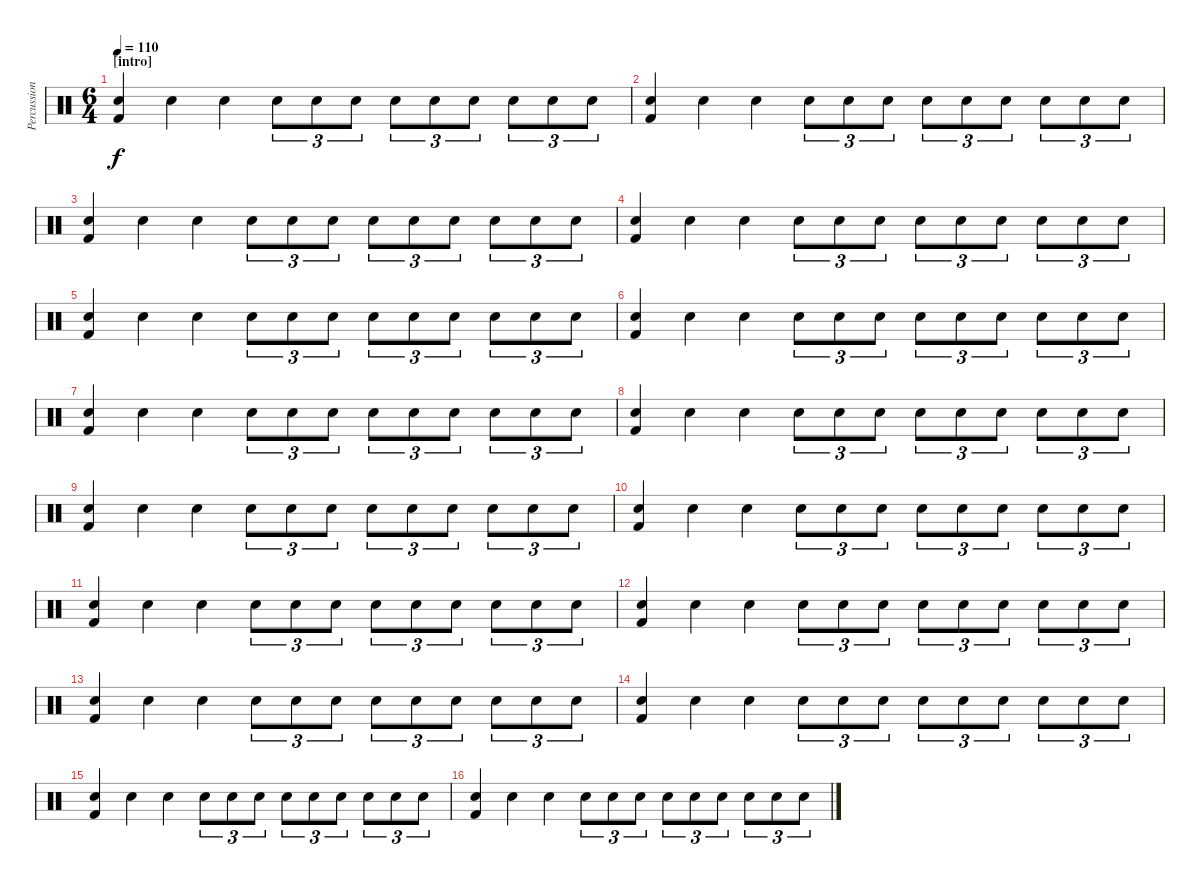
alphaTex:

\track ("Percussion" "Percussion") {instrument percussion}
\staff {score}
\articulation defaults
\ts (6 4)
\section ("" "[intro]")
\tempo 110
\clef neutral
\ks c
("Electric Snare (hit)" "Kick (hit) 2").4{dy f} "Electric Snare (hit)".4 "Electric Snare (hit)".4 "Electric Snare (hit)".8{tu (3 2)} "Electric Snare (hit)".8{tu (3 2)} "Electric Snare (hit)".8{tu (3 2)} "Electric Snare (hit)".8{tu (3 2)} "Electric Snare (hit)".8{tu (3 2)} "Electric Snare (hit)".8{tu (3 2)} "Electric Snare (hit)".8{tu (3 2)} "Electric Snare (hit)".8{tu (3 2)} "Electric Snare (hit)".8{tu (3 2)} |
("Electric Snare (hit)" "Kick (hit) 2").4 "Electric Snare (hit)".4 "Electric Snare (hit)".4 "Electric Snare (hit)".8{tu (3 2)} "Electric Snare (hit)".8{tu (3 2)} "Electric Snare (hit)".8{tu (3 2)} "Electric Snare (hit)".8{tu (3 2)} "Electric Snare (hit)".8{tu (3 2)} "Electric Snare (hit)".8{tu (3 2)} "Electric Snare (hit)".8{tu (3 2)} "Electric Snare (hit)".8{tu (3 2)} "Electric Snare (hit)".8{tu (3 2)} |
("Electric Snare (hit)" "Kick (hit) 2").4 "Electric Snare (hit)".4 "Electric Snare (hit)".4 "Electric Snare (hit)".8{tu (3 2)} "Electric Snare (hit)".8{tu (3 2)} "Electric Snare (hit)".8{tu (3 2)} "Electric Snare (hit)".8{tu (3 2)} "Electric Snare (hit)".8{tu (3 2)} "Electric Snare (hit)".8{tu (3 2)} "Electric Snare (hit)".8{tu (3 2)} "Electric Snare (hit)".8{tu (3 2)} "Electric Snare (hit)".8{tu (3 2)} |
("Electric Snare (hit)" "Kick (hit) 2").4 "Electric Snare (hit)".4 "Electric Snare (hit)".4 "Electric Snare (hit)".8{tu (3 2)} "Electric Snare (hit)".8{tu (3 2)} "Electric Snare (hit)".8{tu (3 2)} "Electric Snare (hit)".8{tu (3 2)} "Electric Snare (hit)".8{tu (3 2)} "Electric Snare (hit)".8{tu (3 2)} "Electric Snare (hit)".8{tu (3 2)} "Electric Snare (hit)".8{tu (3 2)} "Electric Snare (hit)".8{tu (3 2)} |
("Electric Snare (hit)" "Kick (hit) 2").4 "Electric Snare (hit)".4 "Electric Snare (hit)".4 "Electric Snare (hit)".8{tu (3 2)} "Electric Snare (hit)".8{tu (3 2)} "Electric Snare (hit)".8{tu (3 2)} "Electric Snare (hit)".8{tu (3 2)} "Electric Snare (hit)".8{tu (3 2)} "Electric Snare (hit)".8{tu (3 2)} "Electric Snare (hit)".8{tu (3 2)} "Electric Snare (hit)".8{tu (3 2)} "Electric Snare (hit)".8{tu (3 2)} |
("Electric Snare (hit)" "Kick (hit) 2").4 "Electric Snare (hit)".4 "Electric Snare (hit)".4 "Electric Snare (hit)".8{tu (3 2)} "Electric Snare (hit)".8{tu (3 2)} "Electric Snare (hit)".8{tu (3 2)} "Electric Snare (hit)".8{tu (3 2)} "Electric Snare (hit)".8{tu (3 2)} "Electric Snare (hit)".8{tu (3 2)} "Electric Snare (hit)".8{tu (3 2)} "Electric Snare (hit)".8{tu (3 2)} "Electric Snare (hit)".8{tu (3 2)} |
("Electric Snare (hit)" "Kick (hit) 2").4 "Electric Snare (hit)".4 "Electric Snare (hit)".4 "Electric Snare (hit)".8{tu (3 2)} "Electric Snare (hit)".8{tu (3 2)} "Electric Snare (hit)".8{tu (3 2)} "Electric Snare (hit)".8{tu (3 2)} "Electric Snare (hit)".8{tu (3 2)} "Electric Snare (hit)".8{tu (3 2)} "Electric Snare (hit)".8{tu (3 2)} "Electric Snare (hit)".8{tu (3 2)} "Electric Snare (hit)".8{tu (3 2)} |
("Electric Snare (hit)" "Kick (hit) 2").4 "Electric Snare (hit)".4 "Electric Snare (hit)".4 "Electric Snare (hit)".8{tu (3 2)} "Electric Snare (hit)".8{tu (3 2)} "Electric Snare (hit)".8{tu (3 2)} "Electric Snare (hit)".8{tu (3 2)} "Electric Snare (hit)".8{tu (3 2)} "Electric Snare (hit)".8{tu (3 2)} "Electric Snare (hit)".8{tu (3 2)} "Electric Snare (hit)".8{tu (3 2)} "Electric Snare (hit)".8{tu (3 2)} |
("Electric Snare (hit)" "Kick (hit) 2").4 "Electric Snare (hit)".4 "Electric Snare (hit)".4 "Electric Snare (hit)".8{tu (3 2)} "Electric Snare (hit)".8{tu (3 2)} "Electric Snare (hit)".8{tu (3 2)} "Electric Snare (hit)".8{tu (3 2)} "Electric Snare (hit)".8{tu (3 2)} "Electric Snare (hit)".8{tu (3 2)} "Electric Snare (hit)".8{tu (3 2)} "Electric Snare (hit)".8{tu (3 2)} "Electric Snare (hit)".8{tu (3 2)} |
("Electric Snare (hit)" "Kick (hit) 2").4 "Electric Snare (hit)".4 "Electric Snare (hit)".4 "Electric Snare (hit)".8{tu (3 2)} "Electric Snare (hit)".8{tu (3 2)} "Electric Snare (hit)".8{tu (3 2)} "Electric Snare (hit)".8{tu (3 2)} "Electric Snare (hit)".8{tu (3 2)} "Electric Snare (hit)".8{tu (3 2)} "Electric Snare (hit)".8{tu (3 2)} "Electric Snare (hit)".8{tu (3 2)} "Electric Snare (hit)".8{tu (3 2)} |
("Electric Snare (hit)" "Kick (hit) 2").4 "Electric Snare (hit)".4 "Electric Snare (hit)".4 "Electric Snare (hit)".8{tu (3 2)} "Electric Snare (hit)".8{tu (3 2)} "Electric Snare (hit)".8{tu (3 2)} "Electric Snare (hit)".8{tu (3 2)} "Electric Snare (hit)".8{tu (3 2)} "Electric Snare (hit)".8{tu (3 2)} "Electric Snare (hit)".8{tu (3 2)} "Electric Snare (hit)".8{tu (3 2)} "Electric Snare (hit)".8{tu (3 2)} |
("Electric Snare (hit)" "Kick (hit) 2").4 "Electric Snare (hit)".4 "Electric Snare (hit)".4 "Electric Snare (hit)".8{tu (3 2)} "Electric Snare (hit)".8{tu (3 2)} "Electric Snare (hit)".8{tu (3 2)} "Electric Snare (hit)".8{tu (3 2)} "Electric Snare (hit)".8{tu (3 2)} "Electric Snare (hit)".8{tu (3 2)} "Electric Snare (hit)".8{tu (3 2)} "Electric Snare (hit)".8{tu (3 2)} "Electric Snare (hit)".8{tu (3 2)} |
("Electric Snare (hit)" "Kick (hit) 2").4 "Electric Snare (hit)".4 "Electric Snare (hit)".4 "Electric Snare (hit)".8{tu (3 2)} "Electric Snare (hit)".8{tu (3 2)} "Electric Snare (hit)".8{tu (3 2)} "Electric Snare (hit)".8{tu (3 2)} "Electric Snare (hit)".8{tu (3 2)} "Electric Snare (hit)".8{tu (3 2)} "Electric Snare (hit)".8{tu (3 2)} "Electric Snare (hit)".8{tu (3 2)} "Electric Snare (hit)".8{tu (3 2)} |
("Electric Snare (hit)" "Kick (hit) 2").4 "Electric Snare (hit)".4 "Electric Snare (hit)".4 "Electric Snare (hit)".8{tu (3 2)} "Electric Snare (hit)".8{tu (3 2)} "Electric Snare (hit)".8{tu (3 2)} "Electric Snare (hit)".8{tu (3 2)} "Electric Snare (hit)".8{tu (3 2)} "Electric Snare (hit)".8{tu (3 2)} "Electric Snare (hit)".8{tu (3 2)} "Electric Snare (hit)".8{tu (3 2)} "Electric Snare (hit)".8{tu (3 2)} |
("Electric Snare (hit)" "Kick (hit) 2").4 "Electric Snare (hit)".4 "Electric Snare (hit)".4 "Electric Snare (hit)".8{tu (3 2)} "Electric Snare (hit)".8{tu (3 2)} "Electric Snare (hit)".8{tu (3 2)} "Electric Snare (hit)".8{tu (3 2)} "Electric Snare (hit)".8{tu (3 2)} "Electric Snare (hit)".8{tu (3 2)} "Electric Snare (hit)".8{tu (3 2)} "Electric Snare (hit)".8{tu (3 2)} "Electric Snare (hit)".8{tu (3 2)} |
("Electric Snare (hit)" "Kick (hit) 2").4 "Electric Snare (hit)".4 "Electric Snare (hit)".4 "Electric Snare (hit)".8{tu (3 2)} "Electric Snare (hit)".8{tu (3 2)} "Electric Snare (hit)".8{tu (3 2)} "Electric Snare (hit)".8{tu (3 2)} "Electric Snare (hit)".8{tu (3 2)} "Electric Snare (hit)".8{tu (3 2)} "Electric Snare (hit)".8{tu (3 2)} "Electric Snare (hit)".8{tu (3 2)} "Electric Snare (hit)".8{tu (3 2)}
